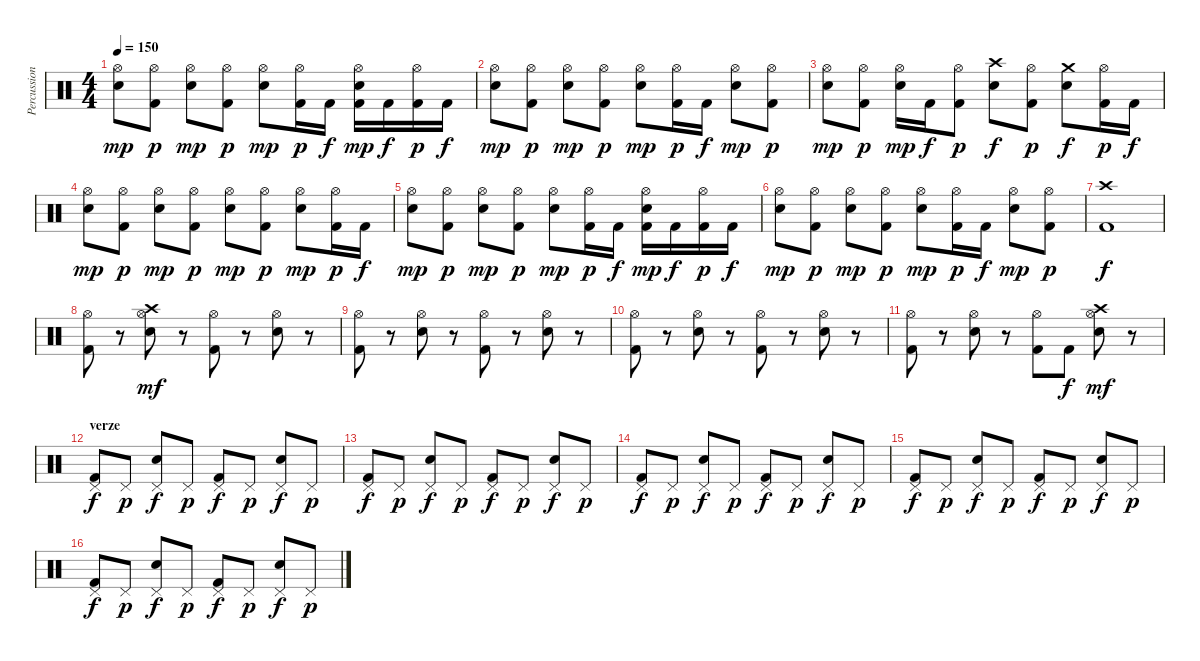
\track ("Percussion" "Percussion") {instrument percussion}
\staff {score}
\articulation defaults
\ts (4 4)
\tempo 150
\clef neutral
\ks c
("Hi-Hat (open)" "Snare (hit) 2").8{dy mp} ("Hi-Hat (open)" "Kick (hit) 2").8{dy p} ("Hi-Hat (open)" "Snare (hit) 2").8{dy mp} ("Hi-Hat (open)" "Kick (hit) 2").8{dy p} ("Hi-Hat (open)" "Snare (hit) 2").8{dy mp} ("Hi-Hat (open)" "Kick (hit) 2").16{dy p} "Kick (hit) 2".16{dy f} ("Hi-Hat (open)" "Kick (hit) 2" "Snare (hit) 2").16{dy mp} "Kick (hit) 2".16{dy f} ("Hi-Hat (open)" "Kick (hit) 2").16{dy p} "Kick (hit) 2".16{dy f} |
("Hi-Hat (open)" "Snare (hit) 2").8{dy mp} ("Hi-Hat (open)" "Kick (hit) 2").8{dy p} ("Hi-Hat (open)" "Snare (hit) 2").8{dy mp} ("Hi-Hat (open)" "Kick (hit) 2").8{dy p} ("Hi-Hat (open)" "Snare (hit) 2").8{dy mp} ("Hi-Hat (open)" "Kick (hit) 2").16{dy p} "Kick (hit) 2".16{dy f} ("Hi-Hat (open)" "Snare (hit) 2").8{dy mp} ("Hi-Hat (open)" "Kick (hit) 2").8{dy p} |
("Hi-Hat (open)" "Snare (hit) 2").8{dy mp} ("Hi-Hat (open)" "Kick (hit) 2").8{dy p} ("Hi-Hat (open)" "Snare (hit) 2").16{dy mp} "Kick (hit) 2".16{dy f} ("Hi-Hat (open)" "Kick (hit) 2").8{dy p} ("Crash high (hit)" "Snare (hit) 2").8{dy f} ("Hi-Hat (open)" "Kick (hit) 2").8{dy p} ("Crash medium (hit)" "Snare (hit) 2").8{dy f} ("Hi-Hat (open)" "Kick (hit) 2").16{dy p} "Kick (hit) 2".16{dy f} |
("Hi-Hat (open)" "Snare (hit) 2").8{dy mp} ("Hi-Hat (open)" "Kick (hit) 2").8{dy p} ("Hi-Hat (open)" "Snare (hit) 2").8{dy mp} ("Hi-Hat (open)" "Kick (hit) 2").8{dy p} ("Hi-Hat (open)" "Snare (hit) 2").8{dy mp} ("Hi-Hat (open)" "Kick (hit) 2").8{dy p} ("Hi-Hat (open)" "Snare (hit) 2").8{dy mp} ("Hi-Hat (open)" "Kick (hit) 2").16{dy p} "Kick (hit) 2".16{dy f} |
("Hi-Hat (open)" "Snare (hit) 2").8{dy mp} ("Hi-Hat (open)" "Kick (hit) 2").8{dy p} ("Hi-Hat (open)" "Snare (hit) 2").8{dy mp} ("Hi-Hat (open)" "Kick (hit) 2").8{dy p} ("Hi-Hat (open)" "Snare (hit) 2").8{dy mp} ("Hi-Hat (open)" "Kick (hit) 2").16{dy p} "Kick (hit) 2".16{dy f} ("Hi-Hat (open)" "Kick (hit) 2" "Snare (hit) 2").16{dy mp} "Kick (hit) 2".16{dy f} ("Hi-Hat (open)" "Kick (hit) 2").16{dy p} "Kick (hit) 2".16{dy f} |
("Hi-Hat (open)" "Snare (hit) 2").8{dy mp} ("Hi-Hat (open)" "Kick (hit) 2").8{dy p} ("Hi-Hat (open)" "Snare (hit) 2").8{dy mp} ("Hi-Hat (open)" "Kick (hit) 2").8{dy p} ("Hi-Hat (open)" "Snare (hit) 2").8{dy mp} ("Hi-Hat (open)" "Kick (hit) 2").16{dy p} "Kick (hit) 2".16{dy f} ("Hi-Hat (open)" "Snare (hit) 2").8{dy mp} ("Hi-Hat (open)" "Kick (hit) 2").8{dy p} |
("Crash high (hit)" "Kick (hit) 2").1{dy f} |
("Hi-Hat (open)" "Kick (hit) 2").8 r.8 ("Hi-Hat (open)" "Crash high (hit)" "Snare (hit) 2").8{dy mf} r.8 ("Hi-Hat (open)" "Kick (hit) 2").8 r.8 ("Hi-Hat (open)" "Snare (hit) 2").8 r.8 |
("Hi-Hat (open)" "Kick (hit) 2").8 r.8 ("Hi-Hat (open)" "Snare (hit) 2").8 r.8 ("Hi-Hat (open)" "Kick (hit) 2").8 r.8 ("Hi-Hat (open)" "Snare (hit) 2").8 r.8 |
("Hi-Hat (open)" "Kick (hit) 2").8 r.8 ("Hi-Hat (open)" "Snare (hit) 2").8 r.8 ("Hi-Hat (open)" "Kick (hit) 2").8 r.8 ("Hi-Hat (open)" "Snare (hit) 2").8 r.8 |
("Hi-Hat (open)" "Kick (hit) 2").8 r.8 ("Hi-Hat (open)" "Snare (hit) 2").8 r.8 ("Hi-Hat (open)" "Kick (hit) 2").8 "Kick (hit) 2".8{dy f} ("Hi-Hat (open)" "Crash high (hit)" "Snare (hit) 2").8{dy mf} r.8 |
\section ("" "verze")
("Pedal Hi-Hat (hit)" "Kick (hit) 2").8{dy f} "Pedal Hi-Hat (hit)".8{dy p} ("Pedal Hi-Hat (hit)" "Snare (hit) 2").8{dy f} "Pedal Hi-Hat (hit)".8{dy p} ("Pedal Hi-Hat (hit)" "Kick (hit) 2").8{dy f} "Pedal Hi-Hat (hit)".8{dy p} ("Pedal Hi-Hat (hit)" "Snare (hit) 2").8{dy f} "Pedal Hi-Hat (hit)".8{dy p} |
("Pedal Hi-Hat (hit)" "Kick (hit) 2").8{dy f} "Pedal Hi-Hat (hit)".8{dy p} ("Pedal Hi-Hat (hit)" "Snare (hit) 2").8{dy f} "Pedal Hi-Hat (hit)".8{dy p} ("Pedal Hi-Hat (hit)" "Kick (hit) 2").8{dy f} "Pedal Hi-Hat (hit)".8{dy p} ("Pedal Hi-Hat (hit)" "Snare (hit) 2").8{dy f} "Pedal Hi-Hat (hit)".8{dy p} |
("Pedal Hi-Hat (hit)" "Kick (hit) 2").8{dy f} "Pedal Hi-Hat (hit)".8{dy p} ("Pedal Hi-Hat (hit)" "Snare (hit) 2").8{dy f} "Pedal Hi-Hat (hit)".8{dy p} ("Pedal Hi-Hat (hit)" "Kick (hit) 2").8{dy f} "Pedal Hi-Hat (hit)".8{dy p} ("Pedal Hi-Hat (hit)" "Snare (hit) 2").8{dy f} "Pedal Hi-Hat (hit)".8{dy p} |
("Pedal Hi-Hat (hit)" "Kick (hit) 2").8{dy f} "Pedal Hi-Hat (hit)".8{dy p} ("Pedal Hi-Hat (hit)" "Snare (hit) 2").8{dy f} "Pedal Hi-Hat (hit)".8{dy p} ("Pedal Hi-Hat (hit)" "Kick (hit) 2").8{dy f} "Pedal Hi-Hat (hit)".8{dy p} ("Pedal Hi-Hat (hit)" "Snare (hit) 2").8{dy f} "Pedal Hi-Hat (hit)".8{dy p} |
("Pedal Hi-Hat (hit)" "Kick (hit) 2").8{dy f} "Pedal Hi-Hat (hit)".8{dy p} ("Pedal Hi-Hat (hit)" "Snare (hit) 2").8{dy f} "Pedal Hi-Hat (hit)".8{dy p} ("Pedal Hi-Hat (hit)" "Kick (hit) 2").8{dy f} "Pedal Hi-Hat (hit)".8{dy p} ("Pedal Hi-Hat (hit)" "Snare (hit) 2").8{dy f} "Pedal Hi-Hat (hit)".8{dy p}
